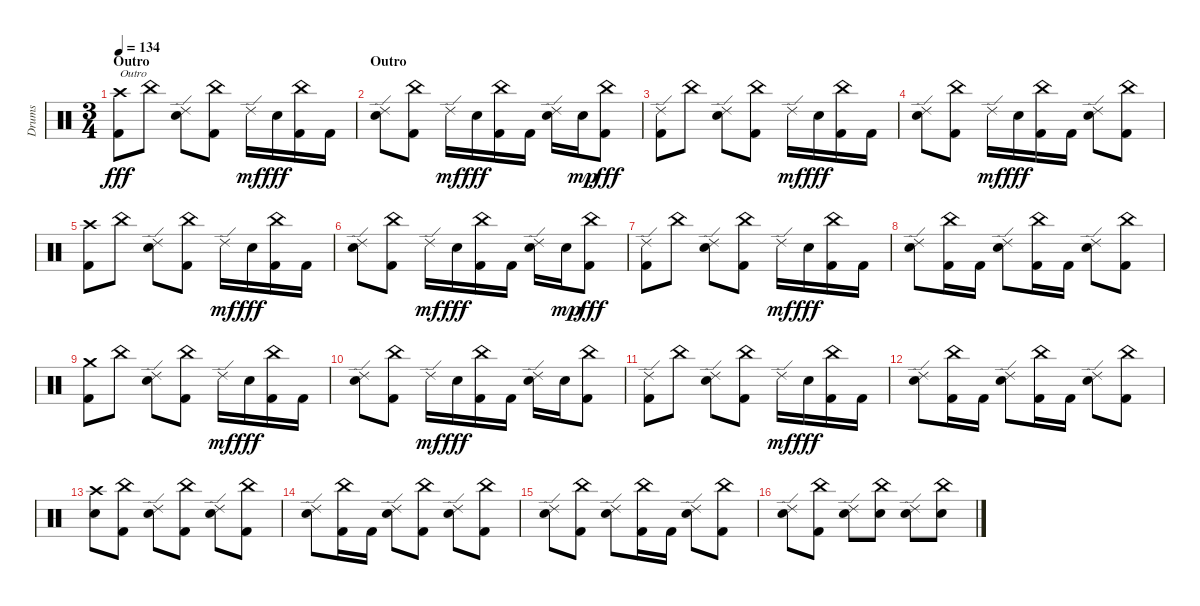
\track ("Drums" "Drums") {instrument percussion}
\staff {score}
\articulation defaults
\ts (3 4)
\section ("" "Outro")
\tempo 134
\clef neutral
\ks c
("Kick (hit) 2" "Crash high (hit)").8{txt "Outro" dy fff} "China (hit)".8 ("Ride (edge) 2" "Snare (hit) 2").8 ("China (hit)" "Kick (hit) 2").8 "Ride (edge) 2".16{dy mf} "Snare (hit) 2".16{dy fff} ("China (hit)" "Kick (hit) 2").16 "Kick (hit) 2".16 |
\section ("" "Outro")
("Ride (edge) 2" "Snare (hit) 2").8 ("China (hit)" "Kick (hit) 2").8 "Ride (edge) 2".16{dy mf} "Snare (hit) 2".16{dy fff} ("China (hit)" "Kick (hit) 2").16 "Kick (hit) 2".16 ("Ride (edge) 2" "Snare (hit) 2").16 "Snare (hit) 2".16{dy mp} ("China (hit)" "Kick (hit) 2").8{dy fff} |
\section ("" "")
("Ride (edge) 2" "Kick (hit) 2").8 "China (hit)".8 ("Ride (edge) 2" "Snare (hit) 2").8 ("China (hit)" "Kick (hit) 2").8 "Ride (edge) 2".16{dy mf} "Snare (hit) 2".16{dy fff} ("China (hit)" "Kick (hit) 2").16 "Kick (hit) 2".16 |
("Ride (edge) 2" "Snare (hit) 2").8 ("China (hit)" "Kick (hit) 2").8 "Ride (edge) 2".16{dy mf} "Snare (hit) 2".16{dy fff} ("China (hit)" "Kick (hit) 2").16 "Kick (hit) 2".16 ("Ride (edge) 2" "Snare (hit) 2").8 ("China (hit)" "Kick (hit) 2").8 |
("Kick (hit) 2" "Crash high (hit)").8 "China (hit)".8 ("Ride (edge) 2" "Snare (hit) 2").8 ("China (hit)" "Kick (hit) 2").8 "Ride (edge) 2".16{dy mf} "Snare (hit) 2".16{dy fff} ("China (hit)" "Kick (hit) 2").16 "Kick (hit) 2".16 |
("Ride (edge) 2" "Snare (hit) 2").8 ("China (hit)" "Kick (hit) 2").8 "Ride (edge) 2".16{dy mf} "Snare (hit) 2".16{dy fff} ("China (hit)" "Kick (hit) 2").16 "Kick (hit) 2".16 ("Ride (edge) 2" "Snare (hit) 2").16 "Snare (hit) 2".16{dy mp} ("China (hit)" "Kick (hit) 2").8{dy fff} |
("Ride (edge) 2" "Kick (hit) 2").8 "China (hit)".8 ("Ride (edge) 2" "Snare (hit) 2").8 ("China (hit)" "Kick (hit) 2").8 "Ride (edge) 2".16{dy mf} "Snare (hit) 2".16{dy fff} ("China (hit)" "Kick (hit) 2").16 "Kick (hit) 2".16 |
("Ride (edge) 2" "Snare (hit) 2").8 ("China (hit)" "Kick (hit) 2").16 "Kick (hit) 2".16 ("Ride (edge) 2" "Snare (hit) 2").8 ("China (hit)" "Kick (hit) 2").16 "Kick (hit) 2".16 ("Ride (edge) 2" "Snare (hit) 2").8 ("China (hit)" "Kick (hit) 2").8 |
("Crash medium (hit)" "Kick (hit) 2").8 "China (hit)".8 ("Ride (edge) 2" "Snare (hit) 2").8 ("China (hit)" "Kick (hit) 2").8 "Ride (edge) 2".16{dy mf} "Snare (hit) 2".16{dy fff} ("China (hit)" "Kick (hit) 2").16 "Kick (hit) 2".16 |
("Ride (edge) 2" "Snare (hit) 2").8 ("China (hit)" "Kick (hit) 2").8 "Ride (edge) 2".16{dy mf} "Snare (hit) 2".16{dy fff} ("China (hit)" "Kick (hit) 2").16 "Kick (hit) 2".16 ("Ride (edge) 2" "Snare (hit) 2").16 "Snare (hit) 2".16 ("China (hit)" "Kick (hit) 2").8 |
("Ride (edge) 2" "Kick (hit) 2").8 "China (hit)".8 ("Ride (edge) 2" "Snare (hit) 2").8 ("China (hit)" "Kick (hit) 2").8 "Ride (edge) 2".16{dy mf} "Snare (hit) 2".16{dy fff} ("China (hit)" "Kick (hit) 2").16 "Kick (hit) 2".16 |
("Ride (edge) 2" "Snare (hit) 2").8 ("China (hit)" "Kick (hit) 2").16 "Kick (hit) 2".16 ("Ride (edge) 2" "Snare (hit) 2").8 ("China (hit)" "Kick (hit) 2").16 "Kick (hit) 2".16 ("Ride (edge) 2" "Snare (hit) 2").8 ("China (hit)" "Kick (hit) 2").8 |
("Snare (hit) 2" "Crash high (hit)").8 ("China (hit)" "Kick (hit) 2").8 ("Ride (edge) 2" "Snare (hit) 2").8 ("China (hit)" "Kick (hit) 2").8 ("Ride (edge) 2" "Snare (hit) 2").8 ("China (hit)" "Kick (hit) 2").8 |
("Ride (edge) 2" "Snare (hit) 2").8 ("China (hit)" "Kick (hit) 2").16 "Kick (hit) 2".16 ("Ride (edge) 2" "Snare (hit) 2").8 ("China (hit)" "Kick (hit) 2").8 ("Ride (edge) 2" "Snare (hit) 2").8 ("China (hit)" "Kick (hit) 2").8 |
("Ride (edge) 2" "Snare (hit) 2").8 ("China (hit)" "Kick (hit) 2").8 ("Ride (edge) 2" "Snare (hit) 2").8 ("China (hit)" "Kick (hit) 2").16 "Kick (hit) 2".16 ("Ride (edge) 2" "Snare (hit) 2").8 ("China (hit)" "Kick (hit) 2").8 |
("Ride (edge) 2" "Snare (hit) 2").8 ("China (hit)" "Kick (hit) 2").8 ("Ride (edge) 2" "Snare (hit) 2").8 ("China (hit)" "Snare (hit) 2").8 ("Ride (edge) 2" "Snare (hit) 2").8 ("China (hit)" "Snare (hit) 2").8
